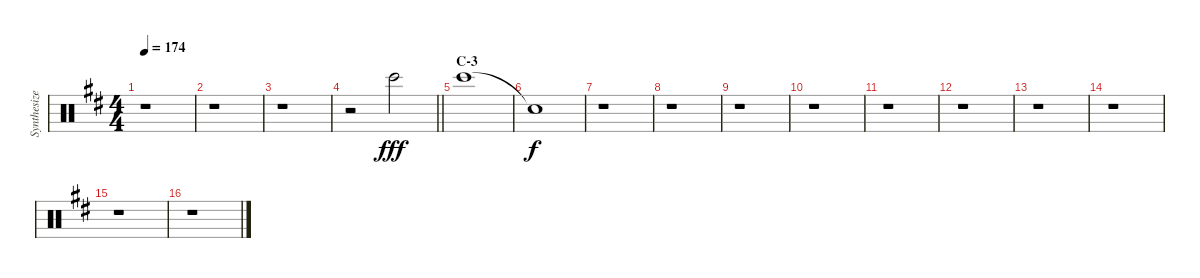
\track ("Synthesized Slap" "Synthesize") {instrument percussion}
\staff {score}
\articulation defaults
\ts (4 4)
\tempo 174
\clef neutral
\ks bminor
r.1{dy f} |
r.1 |
r.1 |
\barLineRight lightlight
r.2 "Bongo High (hit)".2{dy fff} |
\section ("" "C-3")
"Bongo High (hit)".1 |
"Snare (hit)"{t}.1{dy f} |
r.1 |
r.1 |
r.1 |
r.1 |
r.1 |
r.1 |
r.1 |
r.1 |
r.1 |
r.1
